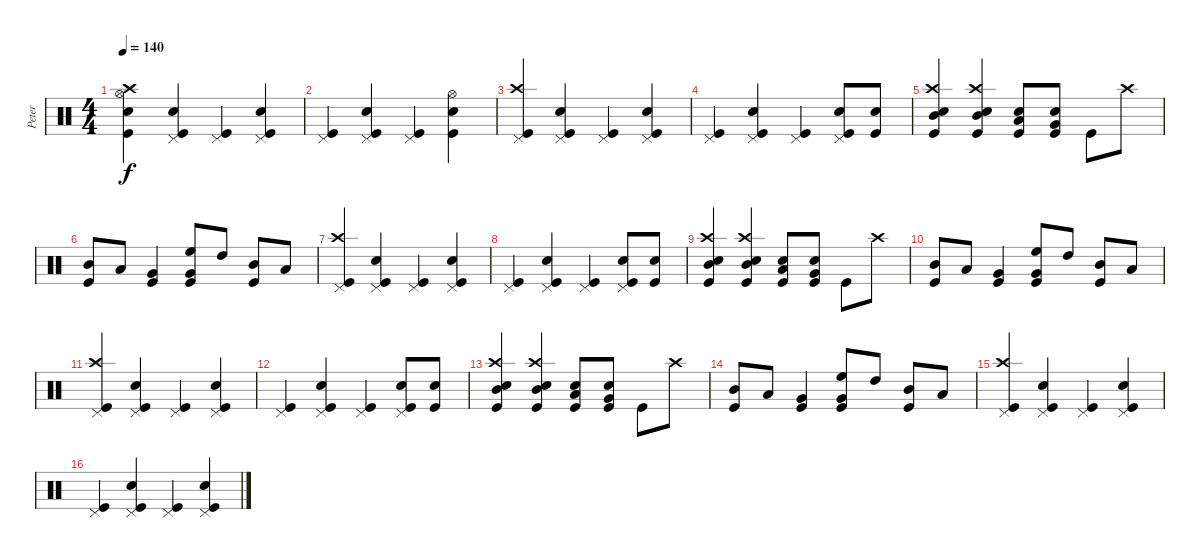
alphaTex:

\track ("Peter" "Peter") {instrument percussion}
\staff {score}
\articulation defaults
\ts (4 4)
\tempo 140
\clef neutral
\ks c
("Kick (hit)" "Snare (hit) 2" "Hi-Hat (open)" "Crash high (hit)").4{dy f} ("Pedal Hi-Hat (hit)" "Kick (hit)" "Snare (hit) 2").4 ("Kick (hit)" "Pedal Hi-Hat (hit)").4 ("Pedal Hi-Hat (hit)" "Kick (hit)" "Snare (hit) 2").4 |
("Kick (hit)" "Pedal Hi-Hat (hit)").4 ("Pedal Hi-Hat (hit)" "Kick (hit)" "Snare (hit) 2").4 ("Pedal Hi-Hat (hit)" "Kick (hit)").4 ("Snare (hit) 2" "Kick (hit)" "Hi-Hat (open)").4 |
("Kick (hit)" "Crash high (hit)" "Pedal Hi-Hat (hit)").4 ("Kick (hit)" "Pedal Hi-Hat (hit)" "Snare (hit) 2").4 ("Pedal Hi-Hat (hit)" "Kick (hit)").4 ("Snare (hit) 2" "Pedal Hi-Hat (hit)" "Kick (hit)").4 |
("Pedal Hi-Hat (hit)" "Kick (hit)").4 ("Pedal Hi-Hat (hit)" "Kick (hit)" "Snare (hit) 2").4 ("Pedal Hi-Hat (hit)" "Kick (hit)").4 ("Kick (hit)" "Pedal Hi-Hat (hit)" "Snare (hit) 2").8 ("Snare (hit) 2" "Kick (hit)").8 |
("Mid Tom (hit)" "Snare (hit) 2" "Kick (hit)" "Crash high (hit)").4 ("Crash high (hit)" "Kick (hit)" "Mid Tom (hit)" "Snare (hit) 2").4 ("Snare (hit) 2" "Kick (hit)" "Low Tom (hit)").8 ("Snare (hit) 2" "Very Low Tom (hit)" "Kick (hit)").8 "Kick (hit)".8 "Crash high (hit)".8 |
("Mid Tom (hit)" "Kick (hit)").8 "Low Tom (hit)".8 ("Very Low Tom (hit)" "Kick (hit)").4 ("Very Low Tom (hit)" "High Floor Tom (hit)" "Kick (hit)").8 "High Tom (hit)".8 ("Kick (hit)" "Mid Tom (hit)").8 "Low Tom (hit)".8 |
("Pedal Hi-Hat (hit)" "Kick (hit)" "Crash high (hit)").4 ("Snare (hit) 2" "Pedal Hi-Hat (hit)" "Kick (hit)").4 ("Kick (hit)" "Pedal Hi-Hat (hit)").4 ("Snare (hit) 2" "Kick (hit)" "Pedal Hi-Hat (hit)").4 |
("Pedal Hi-Hat (hit)" "Kick (hit)").4 ("Kick (hit)" "Pedal Hi-Hat (hit)" "Snare (hit) 2").4 ("Pedal Hi-Hat (hit)" "Kick (hit)").4 ("Snare (hit) 2" "Pedal Hi-Hat (hit)" "Kick (hit)").8 ("Kick (hit)" "Snare (hit) 2").8 |
("Mid Tom (hit)" "Kick (hit)" "Snare (hit) 2" "Crash high (hit)").4 ("Snare (hit) 2" "Crash high (hit)" "Kick (hit)" "Mid Tom (hit)").4 ("Snare (hit) 2" "Low Tom (hit)" "Kick (hit)").8 ("Very Low Tom (hit)" "Snare (hit) 2" "Kick (hit)").8 "Kick (hit)".8 "Crash high (hit)".8 |
("Mid Tom (hit)" "Kick (hit)").8 "Low Tom (hit)".8 ("Kick (hit)" "Very Low Tom (hit)").4 ("Kick (hit)" "Very Low Tom (hit)" "High Floor Tom (hit)").8 "High Tom (hit)".8 ("Kick (hit)" "Mid Tom (hit)").8 "Low Tom (hit)".8 |
("Crash high (hit)" "Kick (hit)" "Pedal Hi-Hat (hit)").4 ("Snare (hit) 2" "Pedal Hi-Hat (hit)" "Kick (hit)").4 ("Pedal Hi-Hat (hit)" "Kick (hit)").4 ("Kick (hit)" "Pedal Hi-Hat (hit)" "Snare (hit) 2").4 |
("Pedal Hi-Hat (hit)" "Kick (hit)").4 ("Kick (hit)" "Snare (hit) 2" "Pedal Hi-Hat (hit)").4 ("Pedal Hi-Hat (hit)" "Kick (hit)").4 ("Kick (hit)" "Pedal Hi-Hat (hit)" "Snare (hit) 2").8 ("Kick (hit)" "Snare (hit) 2").8 |
("Mid Tom (hit)" "Crash high (hit)" "Kick (hit)" "Snare (hit) 2").4 ("Kick (hit)" "Mid Tom (hit)" "Crash high (hit)" "Snare (hit) 2").4 ("Kick (hit)" "Low Tom (hit)" "Snare (hit) 2").8 ("Snare (hit) 2" "Kick (hit)" "Very Low Tom (hit)").8 "Kick (hit)".8 "Crash high (hit)".8 |
("Kick (hit)" "Mid Tom (hit)").8 "Low Tom (hit)".8 ("Kick (hit)" "Very Low Tom (hit)").4 ("Very Low Tom (hit)" "Kick (hit)" "High Floor Tom (hit)").8 "High Tom (hit)".8 ("Kick (hit)" "Mid Tom (hit)").8 "Low Tom (hit)".8 |
("Kick (hit)" "Crash high (hit)" "Pedal Hi-Hat (hit)").4 ("Pedal Hi-Hat (hit)" "Snare (hit) 2" "Kick (hit)").4 ("Pedal Hi-Hat (hit)" "Kick (hit)").4 ("Kick (hit)" "Snare (hit) 2" "Pedal Hi-Hat (hit)").4 |
("Kick (hit)" "Pedal Hi-Hat (hit)").4 ("Snare (hit) 2" "Kick (hit)" "Pedal Hi-Hat (hit)").4 ("Kick (hit)" "Pedal Hi-Hat (hit)").4 ("Kick (hit)" "Pedal Hi-Hat (hit)" "Snare (hit) 2").4
